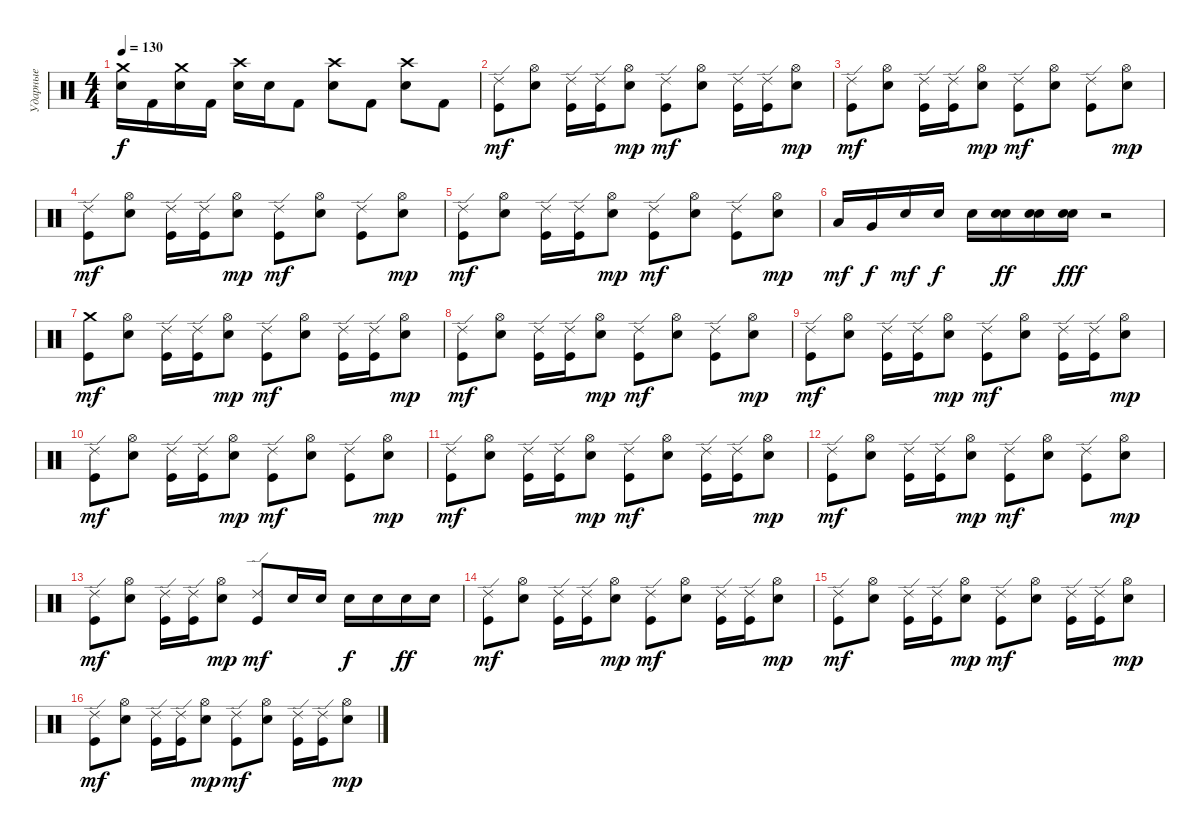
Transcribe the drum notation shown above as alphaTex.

\track ("Ударные" "Ударные") {instrument percussion}
\staff {score}
\articulation defaults
\ts (4 4)
\tempo 130
\clef neutral
\ks c
("Crash medium (hit)" "Electric Snare (hit)").16{dy f} "Kick (hit) 2".16 ("Crash medium (hit)" "Electric Snare (hit)").16 "Kick (hit) 2".16 ("Crash high (hit)" "Electric Snare (hit)").16 "Electric Snare (hit)".16 "Kick (hit) 2".8 ("Crash high (hit)" "Electric Snare (hit)").8 "Kick (hit) 2".8 ("Crash high (hit)" "Electric Snare (hit)").8 "Kick (hit) 2".8 |
("Kick (hit)" "Ride (edge) 2").8{dy mf} ("Electric Snare (hit)" "Hi-Hat (open)").8 ("Kick (hit)" "Ride (edge) 2").16 ("Kick (hit)" "Ride (edge) 2").16 ("Electric Snare (hit)" "Hi-Hat (open)").8{dy mp} ("Kick (hit)" "Ride (edge) 2").8{dy mf} ("Electric Snare (hit)" "Hi-Hat (open)").8 ("Kick (hit)" "Ride (edge) 2").16 ("Kick (hit)" "Ride (edge) 2").16 ("Electric Snare (hit)" "Hi-Hat (open)").8{dy mp} |
("Kick (hit)" "Ride (edge) 2").8{dy mf} ("Electric Snare (hit)" "Hi-Hat (open)").8 ("Kick (hit)" "Ride (edge) 2").16 ("Kick (hit)" "Ride (edge) 2").16 ("Electric Snare (hit)" "Hi-Hat (open)").8{dy mp} ("Kick (hit)" "Ride (edge) 2").8{dy mf} ("Electric Snare (hit)" "Hi-Hat (open)").8 ("Kick (hit)" "Ride (edge) 2").8 ("Electric Snare (hit)" "Hi-Hat (open)").8{dy mp} |
("Kick (hit)" "Ride (edge) 2").8{dy mf} ("Electric Snare (hit)" "Hi-Hat (open)").8 ("Kick (hit)" "Ride (edge) 2").16 ("Kick (hit)" "Ride (edge) 2").16 ("Electric Snare (hit)" "Hi-Hat (open)").8{dy mp} ("Kick (hit)" "Ride (edge) 2").8{dy mf} ("Electric Snare (hit)" "Hi-Hat (open)").8 ("Kick (hit)" "Ride (edge) 2").8 ("Electric Snare (hit)" "Hi-Hat (open)").8{dy mp} |
("Kick (hit)" "Ride (edge) 2").8{dy mf} ("Electric Snare (hit)" "Hi-Hat (open)").8 ("Kick (hit)" "Ride (edge) 2").16 ("Kick (hit)" "Ride (edge) 2").16 ("Electric Snare (hit)" "Hi-Hat (open)").8{dy mp} ("Kick (hit)" "Ride (edge) 2").8{dy mf} ("Electric Snare (hit)" "Hi-Hat (open)").8 ("Kick (hit)" "Ride (edge) 2").8 ("Electric Snare (hit)" "Hi-Hat (open)").8{dy mp} |
"Low Tom (hit)".16{dy mf} "Very Low Tom (hit)".16{dy f} "Electric Snare (hit)".16{dy mf} "Electric Snare (hit)".16{dy f} "Electric Snare (hit)".16 ("Electric Snare (hit)" "Electric Snare (hit)").16{dy ff} ("Electric Snare (hit)" "Electric Snare (hit)").16 ("Electric Snare (hit)" "Electric Snare (hit)").16{dy fff} r.2 |
("Kick (hit)" "Crash medium (hit)").8{dy mf} ("Electric Snare (hit)" "Hi-Hat (open)").8 ("Kick (hit)" "Ride (edge) 2").16 ("Kick (hit)" "Ride (edge) 2").16 ("Electric Snare (hit)" "Hi-Hat (open)").8{dy mp} ("Kick (hit)" "Ride (edge) 2").8{dy mf} ("Electric Snare (hit)" "Hi-Hat (open)").8 ("Kick (hit)" "Ride (edge) 2").16 ("Kick (hit)" "Ride (edge) 2").16 ("Electric Snare (hit)" "Hi-Hat (open)").8{dy mp} |
("Kick (hit)" "Ride (edge) 2").8{dy mf} ("Electric Snare (hit)" "Hi-Hat (open)").8 ("Kick (hit)" "Ride (edge) 2").16 ("Kick (hit)" "Ride (edge) 2").16 ("Electric Snare (hit)" "Hi-Hat (open)").8{dy mp} ("Kick (hit)" "Ride (edge) 2").8{dy mf} ("Electric Snare (hit)" "Hi-Hat (open)").8 ("Kick (hit)" "Ride (edge) 2").8 ("Electric Snare (hit)" "Hi-Hat (open)").8{dy mp} |
("Kick (hit)" "Ride (edge) 2").8{dy mf} ("Electric Snare (hit)" "Hi-Hat (open)").8 ("Kick (hit)" "Ride (edge) 2").16 ("Kick (hit)" "Ride (edge) 2").16 ("Electric Snare (hit)" "Hi-Hat (open)").8{dy mp} ("Kick (hit)" "Ride (edge) 2").8{dy mf} ("Electric Snare (hit)" "Hi-Hat (open)").8 ("Kick (hit)" "Ride (edge) 2").16 ("Kick (hit)" "Ride (edge) 2").16 ("Electric Snare (hit)" "Hi-Hat (open)").8{dy mp} |
("Kick (hit)" "Ride (edge) 2").8{dy mf} ("Electric Snare (hit)" "Hi-Hat (open)").8 ("Kick (hit)" "Ride (edge) 2").16 ("Kick (hit)" "Ride (edge) 2").16 ("Electric Snare (hit)" "Hi-Hat (open)").8{dy mp} ("Kick (hit)" "Ride (edge) 2").8{dy mf} ("Electric Snare (hit)" "Hi-Hat (open)").8 ("Kick (hit)" "Ride (edge) 2").8 ("Electric Snare (hit)" "Hi-Hat (open)").8{dy mp} |
("Kick (hit)" "Ride (edge) 2").8{dy mf} ("Electric Snare (hit)" "Hi-Hat (open)").8 ("Kick (hit)" "Ride (edge) 2").16 ("Kick (hit)" "Ride (edge) 2").16 ("Electric Snare (hit)" "Hi-Hat (open)").8{dy mp} ("Kick (hit)" "Ride (edge) 2").8{dy mf} ("Electric Snare (hit)" "Hi-Hat (open)").8 ("Kick (hit)" "Ride (edge) 2").16 ("Kick (hit)" "Ride (edge) 2").16 ("Electric Snare (hit)" "Hi-Hat (open)").8{dy mp} |
("Kick (hit)" "Ride (edge) 2").8{dy mf} ("Electric Snare (hit)" "Hi-Hat (open)").8 ("Kick (hit)" "Ride (edge) 2").16 ("Kick (hit)" "Ride (edge) 2").16 ("Electric Snare (hit)" "Hi-Hat (open)").8{dy mp} ("Kick (hit)" "Ride (edge) 2").8{dy mf} ("Electric Snare (hit)" "Hi-Hat (open)").8 ("Kick (hit)" "Ride (edge) 2").8 ("Electric Snare (hit)" "Hi-Hat (open)").8{dy mp} |
("Kick (hit)" "Ride (edge) 2").8{dy mf} ("Electric Snare (hit)" "Hi-Hat (open)").8 ("Kick (hit)" "Ride (edge) 2").16 ("Kick (hit)" "Ride (edge) 2").16 ("Electric Snare (hit)" "Hi-Hat (open)").8{dy mp} ("Kick (hit)" "Ride (edge) 2").8{dy mf} "Electric Snare (hit)".16 "Electric Snare (hit)".16 "Electric Snare (hit)".16{dy f} "Electric Snare (hit)".16 "Electric Snare (hit)".16{dy ff} "Electric Snare (hit)".16 |
("Kick (hit)" "Ride (edge) 2").8{dy mf} ("Electric Snare (hit)" "Hi-Hat (open)").8 ("Kick (hit)" "Ride (edge) 2").16 ("Kick (hit)" "Ride (edge) 2").16 ("Electric Snare (hit)" "Hi-Hat (open)").8{dy mp} ("Kick (hit)" "Ride (edge) 2").8{dy mf} ("Electric Snare (hit)" "Hi-Hat (open)").8 ("Kick (hit)" "Ride (edge) 2").16 ("Kick (hit)" "Ride (edge) 2").16 ("Electric Snare (hit)" "Hi-Hat (open)").8{dy mp} |
("Kick (hit)" "Ride (edge) 2").8{dy mf} ("Electric Snare (hit)" "Hi-Hat (open)").8 ("Kick (hit)" "Ride (edge) 2").16 ("Kick (hit)" "Ride (edge) 2").16 ("Electric Snare (hit)" "Hi-Hat (open)").8{dy mp} ("Kick (hit)" "Ride (edge) 2").8{dy mf} ("Electric Snare (hit)" "Hi-Hat (open)").8 ("Kick (hit)" "Ride (edge) 2").16 ("Kick (hit)" "Ride (edge) 2").16 ("Electric Snare (hit)" "Hi-Hat (open)").8{dy mp} |
("Kick (hit)" "Ride (edge) 2").8{dy mf} ("Electric Snare (hit)" "Hi-Hat (open)").8 ("Kick (hit)" "Ride (edge) 2").16 ("Kick (hit)" "Ride (edge) 2").16 ("Electric Snare (hit)" "Hi-Hat (open)").8{dy mp} ("Kick (hit)" "Ride (edge) 2").8{dy mf} ("Electric Snare (hit)" "Hi-Hat (open)").8 ("Kick (hit)" "Ride (edge) 2").16 ("Kick (hit)" "Ride (edge) 2").16 ("Electric Snare (hit)" "Hi-Hat (open)").8{dy mp}
